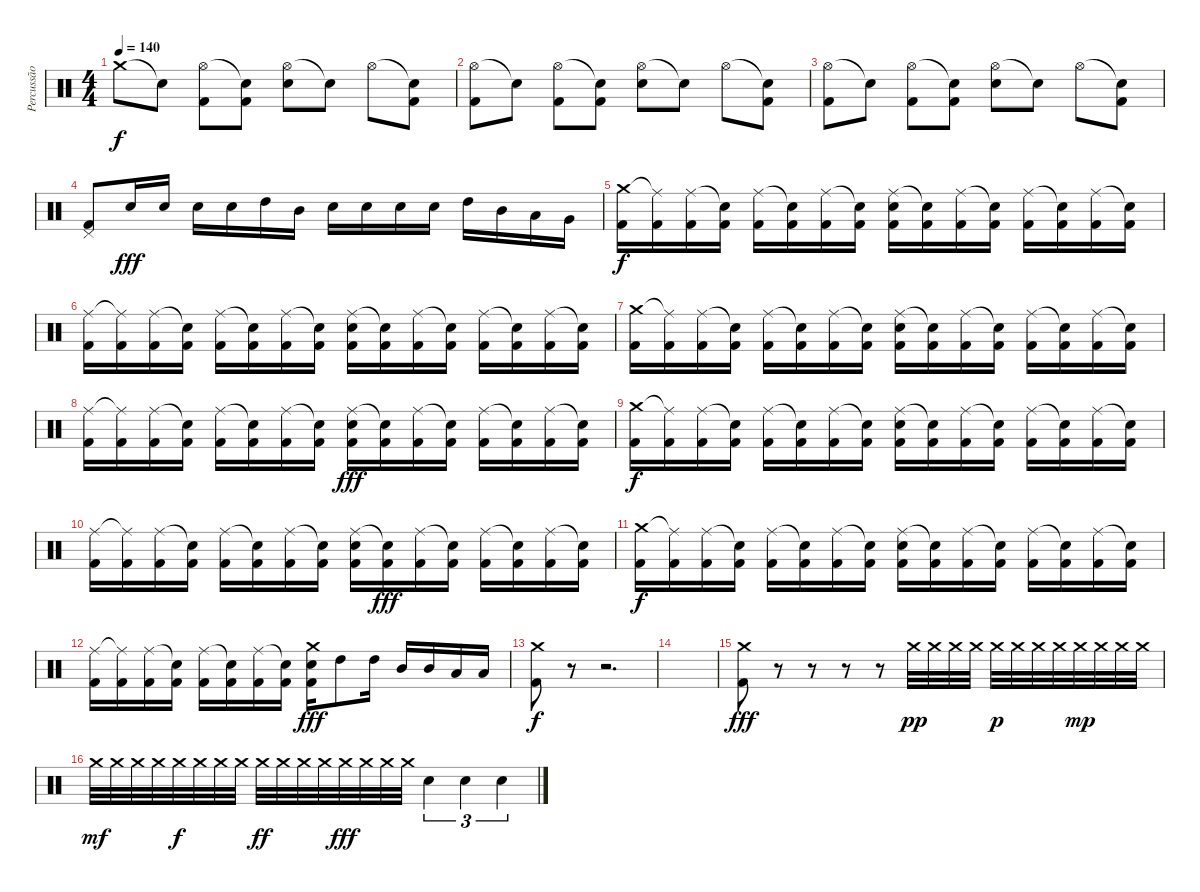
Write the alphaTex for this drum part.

\track ("Percussão" "Percussão") {instrument percussion}
\staff {score}
\articulation defaults
\ts (4 4)
\tempo 140
\clef neutral
\ks c "Crash medium (hit)".8{dy f} "Snare (hit)"{t}.8
("Hi-Hat (open)" "Kick (hit) 2").8 ("Snare (hit)"{t} "Kick (hit) 2").8 ("Hi-Hat (open)" "Electric Snare (hit)").8 "Snare (hit)"{t}.8 "Hi-Hat (open)".8 ("Snare (hit)"{t} "Kick (hit) 2").8 |
("Hi-Hat (open)" "Kick (hit) 2").8 "Snare (hit)"{t}.8 ("Hi-Hat (open)" "Kick (hit) 2").8 ("Snare (hit)"{t} "Kick (hit) 2").8 ("Hi-Hat (open)" "Electric Snare (hit)").8 "Snare (hit)"{t}.8 "Hi-Hat (open)".8 ("Snare (hit)"{t} "Kick (hit) 2").8 |
("Hi-Hat (open)" "Kick (hit) 2").8 "Snare (hit)"{t}.8 ("Hi-Hat (open)" "Kick (hit) 2").8 ("Snare (hit)"{t} "Kick (hit) 2").8 ("Hi-Hat (open)" "Electric Snare (hit)").8 "Snare (hit)"{t}.8 "Hi-Hat (open)".8 ("Snare (hit)"{t} "Kick (hit) 2").8 |
("Pedal Hi-Hat (hit)" "Kick (hit) 2").8 "Electric Snare (hit)".16{dy fff} "Electric Snare (hit)".16 "Electric Snare (hit)".16 "Electric Snare (hit)".16 "High Tom (hit)".16 "Mid Tom (hit)".16 "Electric Snare (hit)".16 "Electric Snare (hit)".16 "Electric Snare (hit)".16 "Electric Snare (hit)".16 "High Tom (hit)".16 "Mid Tom (hit)".16 "Low Tom (hit)".16 "Very Low Tom (hit)".16 |
("Crash medium (hit)" "Kick (hit) 2").16{dy f} ("Ride (middle)"{t} "Kick (hit) 2").16 ("Ride (middle)" "Kick (hit) 2").16 ("Snare (hit)"{t} "Kick (hit) 2").16 ("Ride (middle)" "Kick (hit) 2").16 ("Snare (hit)"{t} "Kick (hit) 2").16 ("Ride (middle)" "Kick (hit) 2").16 ("Snare (hit)"{t} "Kick (hit) 2").16 ("Ride (middle)" "Electric Snare (hit)" "Kick (hit) 2").16 ("Snare (hit)"{t} "Kick (hit) 2").16 ("Ride (middle)" "Kick (hit) 2").16 ("Snare (hit)"{t} "Kick (hit) 2").16 ("Ride (middle)" "Kick (hit) 2").16 ("Snare (hit)"{t} "Kick (hit) 2").16 ("Ride (middle)" "Kick (hit) 2").16 ("Snare (hit)"{t} "Kick (hit) 2").16 |
("Ride (middle)" "Kick (hit) 2").16 ("Ride (middle)"{t} "Kick (hit) 2").16 ("Ride (middle)" "Kick (hit) 2").16 ("Snare (hit)"{t} "Kick (hit) 2").16 ("Ride (middle)" "Kick (hit) 2").16 ("Snare (hit)"{t} "Kick (hit) 2").16 ("Ride (middle)" "Kick (hit) 2").16 ("Snare (hit)"{t} "Kick (hit) 2").16 ("Ride (middle)" "Electric Snare (hit)" "Kick (hit) 2").16 ("Snare (hit)"{t} "Kick (hit) 2").16 ("Ride (middle)" "Kick (hit) 2").16 ("Snare (hit)"{t} "Kick (hit) 2").16 ("Ride (middle)" "Kick (hit) 2").16 ("Snare (hit)"{t} "Kick (hit) 2").16 ("Ride (middle)" "Kick (hit) 2").16 ("Snare (hit)"{t} "Kick (hit) 2").16 |
("Crash medium (hit)" "Kick (hit) 2").16 ("Ride (middle)"{t} "Kick (hit) 2").16 ("Ride (middle)" "Kick (hit) 2").16 ("Snare (hit)"{t} "Kick (hit) 2").16 ("Ride (middle)" "Kick (hit) 2").16 ("Snare (hit)"{t} "Kick (hit) 2").16 ("Ride (middle)" "Kick (hit) 2").16 ("Snare (hit)"{t} "Kick (hit) 2").16 ("Ride (middle)" "Electric Snare (hit)" "Kick (hit) 2").16 ("Snare (hit)"{t} "Kick (hit) 2").16 ("Ride (middle)" "Kick (hit) 2").16 ("Snare (hit)"{t} "Kick (hit) 2").16 ("Ride (middle)" "Kick (hit) 2").16 ("Snare (hit)"{t} "Kick (hit) 2").16 ("Ride (middle)" "Kick (hit) 2").16 ("Snare (hit)"{t} "Kick (hit) 2").16 |
("Ride (middle)" "Kick (hit) 2").16 ("Ride (middle)"{t} "Kick (hit) 2").16 ("Ride (middle)" "Kick (hit) 2").16 ("Snare (hit)"{t} "Kick (hit) 2").16 ("Ride (middle)" "Kick (hit) 2").16 ("Snare (hit)"{t} "Kick (hit) 2").16 ("Ride (middle)" "Kick (hit) 2").16 ("Snare (hit)"{t} "Kick (hit) 2").16 ("Ride (middle)" "Electric Snare (hit)" "Kick (hit) 2").16{dy fff} ("Snare (hit)"{t} "Kick (hit) 2").16 ("Ride (middle)" "Kick (hit) 2").16 ("Snare (hit)"{t} "Kick (hit) 2").16 ("Ride (middle)" "Kick (hit) 2").16 ("Snare (hit)"{t} "Kick (hit) 2").16 ("Ride (middle)" "Kick (hit) 2").16 ("Snare (hit)"{t} "Kick (hit) 2").16 |
("Crash medium (hit)" "Kick (hit) 2").16{dy f} ("Ride (middle)"{t} "Kick (hit) 2").16 ("Ride (middle)" "Kick (hit) 2").16 ("Snare (hit)"{t} "Kick (hit) 2").16 ("Ride (middle)" "Kick (hit) 2").16 ("Snare (hit)"{t} "Kick (hit) 2").16 ("Ride (middle)" "Kick (hit) 2").16 ("Snare (hit)"{t} "Kick (hit) 2").16 ("Ride (middle)" "Electric Snare (hit)" "Kick (hit) 2").16 ("Snare (hit)"{t} "Kick (hit) 2").16 ("Ride (middle)" "Kick (hit) 2").16 ("Snare (hit)"{t} "Kick (hit) 2").16 ("Ride (middle)" "Kick (hit) 2").16 ("Snare (hit)"{t} "Kick (hit) 2").16 ("Ride (middle)" "Kick (hit) 2").16 ("Snare (hit)"{t} "Kick (hit) 2").16 |
("Ride (middle)" "Kick (hit) 2").16 ("Ride (middle)"{t} "Kick (hit) 2").16 ("Ride (middle)" "Kick (hit) 2").16 ("Snare (hit)"{t} "Kick (hit) 2").16 ("Ride (middle)" "Kick (hit) 2").16 ("Snare (hit)"{t} "Kick (hit) 2").16 ("Ride (middle)" "Kick (hit) 2").16 ("Snare (hit)"{t} "Kick (hit) 2").16 ("Ride (middle)" "Electric Snare (hit)" "Kick (hit) 2").16 ("Snare (hit)"{t} "Kick (hit) 2").16{dy fff} ("Ride (middle)" "Kick (hit) 2").16 ("Snare (hit)"{t} "Kick (hit) 2").16 ("Ride (middle)" "Kick (hit) 2").16 ("Snare (hit)"{t} "Kick (hit) 2").16 ("Ride (middle)" "Kick (hit) 2").16 ("Snare (hit)"{t} "Kick (hit) 2").16 |
("Crash medium (hit)" "Kick (hit) 2").16{dy f} ("Ride (middle)"{t} "Kick (hit) 2").16 ("Ride (middle)" "Kick (hit) 2").16 ("Snare (hit)"{t} "Kick (hit) 2").16 ("Ride (middle)" "Kick (hit) 2").16 ("Snare (hit)"{t} "Kick (hit) 2").16 ("Ride (middle)" "Kick (hit) 2").16 ("Snare (hit)"{t} "Kick (hit) 2").16 ("Ride (middle)" "Electric Snare (hit)" "Kick (hit) 2").16 ("Snare (hit)"{t} "Kick (hit) 2").16 ("Ride (middle)" "Kick (hit) 2").16 ("Snare (hit)"{t} "Kick (hit) 2").16 ("Ride (middle)" "Kick (hit) 2").16 ("Snare (hit)"{t} "Kick (hit) 2").16 ("Ride (middle)" "Kick (hit) 2").16 ("Snare (hit)"{t} "Kick (hit) 2").16 |
("Ride (middle)" "Kick (hit) 2").16 ("Ride (middle)"{t} "Kick (hit) 2").16 ("Ride (middle)" "Kick (hit) 2").16 ("Snare (hit)"{t} "Kick (hit) 2").16 ("Ride (middle)" "Kick (hit) 2").16 ("Snare (hit)"{t} "Kick (hit) 2").16 ("Ride (middle)" "Kick (hit) 2").16 ("Snare (hit)"{t} "Kick (hit) 2").16 ("Crash medium (hit)" "Electric Snare (hit)" "Kick (hit) 2").16{dy fff} "High Tom (hit)".8 "High Tom (hit)".16 "Mid Tom (hit)".16 "Mid Tom (hit)".16 "Low Tom (hit)".16 "Low Tom (hit)".16 |
("Crash medium (hit)" "Kick (hit) 2").8{dy f} r.8 r.2{d} |
|
("Crash medium (hit)" "Kick (hit) 2").8{dy fff} r.8 r.8 r.8 r.8 "Crash medium (hit)".32{dy pp} "Crash medium (hit)".32 "Crash medium (hit)".32 "Crash medium (hit)".32 "Crash medium (hit)".32{dy p} "Crash medium (hit)".32 "Crash medium (hit)".32 "Crash medium (hit)".32 "Crash medium (hit)".32{dy mp} "Crash medium (hit)".32 "Crash medium (hit)".32 "Crash medium (hit)".32 |
"Crash medium (hit)".32{dy mf} "Crash medium (hit)".32 "Crash medium (hit)".32 "Crash medium (hit)".32 "Crash medium (hit)".32{dy f} "Crash medium (hit)".32 "Crash medium (hit)".32 "Crash medium (hit)".32 "Crash medium (hit)".32{dy ff} "Crash medium (hit)".32 "Crash medium (hit)".32 "Crash medium (hit)".32 "Crash medium (hit)".32{dy fff} "Crash medium (hit)".32 "Crash medium (hit)".32 "Crash medium (hit)".32 "Electric Snare (hit)".4{tu (3 2)} "Electric Snare (hit)".4{tu (3 2)} "Electric Snare (hit)".4{tu (3 2)}
